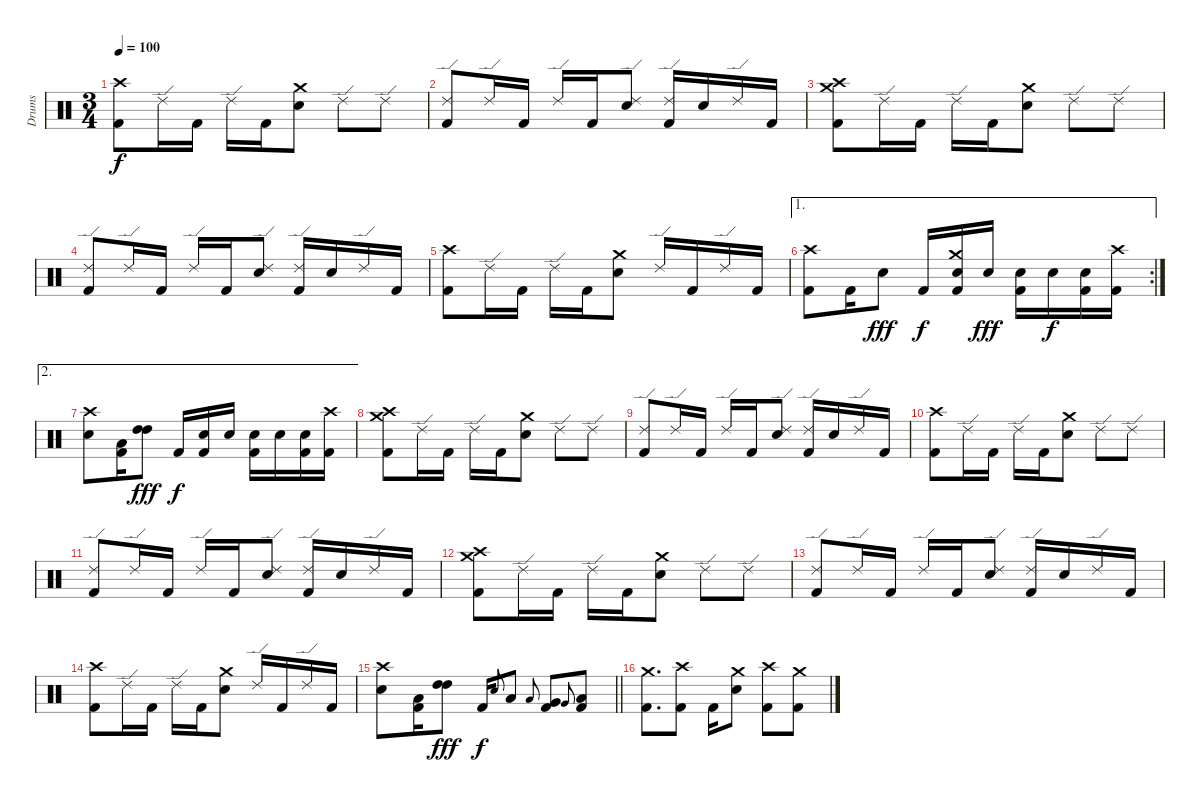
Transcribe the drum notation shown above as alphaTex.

\track ("Drums" "Drums") {instrument percussion}
\staff {score}
\articulation defaults
\ts (3 4)
\tempo 100
\clef neutral
\ks c
("Crash high (hit)" "Kick (hit) 2").8{dy f} "Ride (edge) 2".16 "Kick (hit) 2".16 "Ride (edge) 2".16 "Kick (hit) 2".16 ("Crash medium (hit)" "Electric Snare (hit)").8 "Ride (edge) 2".8 "Ride (edge) 2".8 |
("Ride (edge) 2" "Kick (hit) 2").8 "Ride (edge) 2".16 "Kick (hit) 2".16 "Ride (edge) 2".16 "Kick (hit) 2".16 ("Ride (edge) 2" "Electric Snare (hit)").8 ("Ride (edge) 2" "Kick (hit) 2").16 "Electric Snare (hit)".16 "Ride (edge) 2".16 "Kick (hit) 2".16 |
("Crash high (hit)" "Crash medium (hit)" "Kick (hit) 2").8 "Ride (edge) 2".16 "Kick (hit) 2".16 "Ride (edge) 2".16 "Kick (hit) 2".16 ("Crash medium (hit)" "Electric Snare (hit)").8 "Ride (edge) 2".8 "Ride (edge) 2".8 |
("Ride (edge) 2" "Kick (hit) 2").8 "Ride (edge) 2".16 "Kick (hit) 2".16 "Ride (edge) 2".16 "Kick (hit) 2".16 ("Ride (edge) 2" "Electric Snare (hit)").8 ("Ride (edge) 2" "Kick (hit) 2").16 "Electric Snare (hit)".16 "Ride (edge) 2".16 "Kick (hit) 2".16 |
("Crash high (hit)" "Kick (hit) 2").8 "Ride (edge) 2".16 "Kick (hit) 2".16 "Ride (edge) 2".16 "Kick (hit) 2".16 ("Crash medium (hit)" "Electric Snare (hit)").8 "Ride (edge) 2".16 "Kick (hit) 2".16 "Ride (edge) 2".16 "Kick (hit) 2".16 |
\ae 1
\rc 2
("Crash high (hit)" "Kick (hit) 2").8 "Kick (hit) 2".16 "Electric Snare (hit)".8{dy fff} "Kick (hit) 2".16{dy f} ("Crash medium (hit)" "Electric Snare (hit)" "Kick (hit) 2").16 "Electric Snare (hit)".16{dy fff} ("Electric Snare (hit)" "Kick (hit) 2").16 "Electric Snare (hit)".16{dy f} ("Electric Snare (hit)" "Kick (hit) 2").16 ("Crash high (hit)" "Kick (hit) 2").16 |
\ae 2
("Crash high (hit)" "Electric Snare (hit)").8 ("Low Tom (hit)" "Kick (hit) 2").16 ("High Tom (hit)" "High Tom (hit)").8{dy fff} "Kick (hit) 2".16{dy f} ("Electric Snare (hit)" "Kick (hit) 2").16 "Electric Snare (hit)".16 ("Electric Snare (hit)" "Kick (hit) 2").16 "Electric Snare (hit)".16 ("Electric Snare (hit)" "Kick (hit) 2").16 ("Crash high (hit)" "Kick (hit) 2").16 |
("Crash high (hit)" "Crash medium (hit)" "Kick (hit) 2").8 "Ride (edge) 2".16 "Kick (hit) 2".16 "Ride (edge) 2".16 "Kick (hit) 2".16 ("Crash medium (hit)" "Electric Snare (hit)").8 "Ride (edge) 2".8 "Ride (edge) 2".8 |
("Ride (edge) 2" "Kick (hit) 2").8 "Ride (edge) 2".16 "Kick (hit) 2".16 "Ride (edge) 2".16 "Kick (hit) 2".16 ("Ride (edge) 2" "Electric Snare (hit)").8 ("Ride (edge) 2" "Kick (hit) 2").16 "Electric Snare (hit)".16 "Ride (edge) 2".16 "Kick (hit) 2".16 |
("Crash high (hit)" "Kick (hit) 2").8 "Ride (edge) 2".16 "Kick (hit) 2".16 "Ride (edge) 2".16 "Kick (hit) 2".16 ("Crash medium (hit)" "Electric Snare (hit)").8 "Ride (edge) 2".8 "Ride (edge) 2".8 |
("Ride (edge) 2" "Kick (hit) 2").8 "Ride (edge) 2".16 "Kick (hit) 2".16 "Ride (edge) 2".16 "Kick (hit) 2".16 ("Ride (edge) 2" "Electric Snare (hit)").8 ("Ride (edge) 2" "Kick (hit) 2").16 "Electric Snare (hit)".16 "Ride (edge) 2".16 "Kick (hit) 2".16 |
("Crash high (hit)" "Crash medium (hit)" "Kick (hit) 2").8 "Ride (edge) 2".16 "Kick (hit) 2".16 "Ride (edge) 2".16 "Kick (hit) 2".16 ("Crash medium (hit)" "Electric Snare (hit)").8 "Ride (edge) 2".8 "Ride (edge) 2".8 |
("Ride (edge) 2" "Kick (hit) 2").8 "Ride (edge) 2".16 "Kick (hit) 2".16 "Ride (edge) 2".16 "Kick (hit) 2".16 ("Ride (edge) 2" "Electric Snare (hit)").8 ("Ride (edge) 2" "Kick (hit) 2").16 "Electric Snare (hit)".16 "Ride (edge) 2".16 "Kick (hit) 2".16 |
("Crash high (hit)" "Kick (hit) 2").8 "Ride (edge) 2".16 "Kick (hit) 2".16 "Ride (edge) 2".16 "Kick (hit) 2".16 ("Crash medium (hit)" "Electric Snare (hit)").8 "Ride (edge) 2".16 "Kick (hit) 2".16 "Ride (edge) 2".16 "Kick (hit) 2".16 |
\barLineRight lightlight
("Crash high (hit)" "Electric Snare (hit)").8 ("Low Tom (hit)" "Kick (hit) 2").16 ("High Tom (hit)" "High Tom (hit)").8{dy fff} "Kick (hit) 2".16{dy f} "Electric Snare (hit)".8{gr onbeat} "Low Tom (hit)".8 "Low Tom (hit)".8{gr onbeat} ("Very Low Tom (hit)" "Kick (hit) 2").8 "Very Low Tom (hit)".8{gr onbeat} ("Low Floor Tom (hit)" "Kick (hit) 2").8 |
("Crash medium (hit)" "Kick (hit) 2").8{d} ("Crash high (hit)" "Kick (hit) 2").8 "Kick (hit) 2".16 ("Crash medium (hit)" "Electric Snare (hit)").8 ("Crash high (hit)" "Kick (hit) 2").8 ("Crash medium (hit)" "Kick (hit) 2").8
